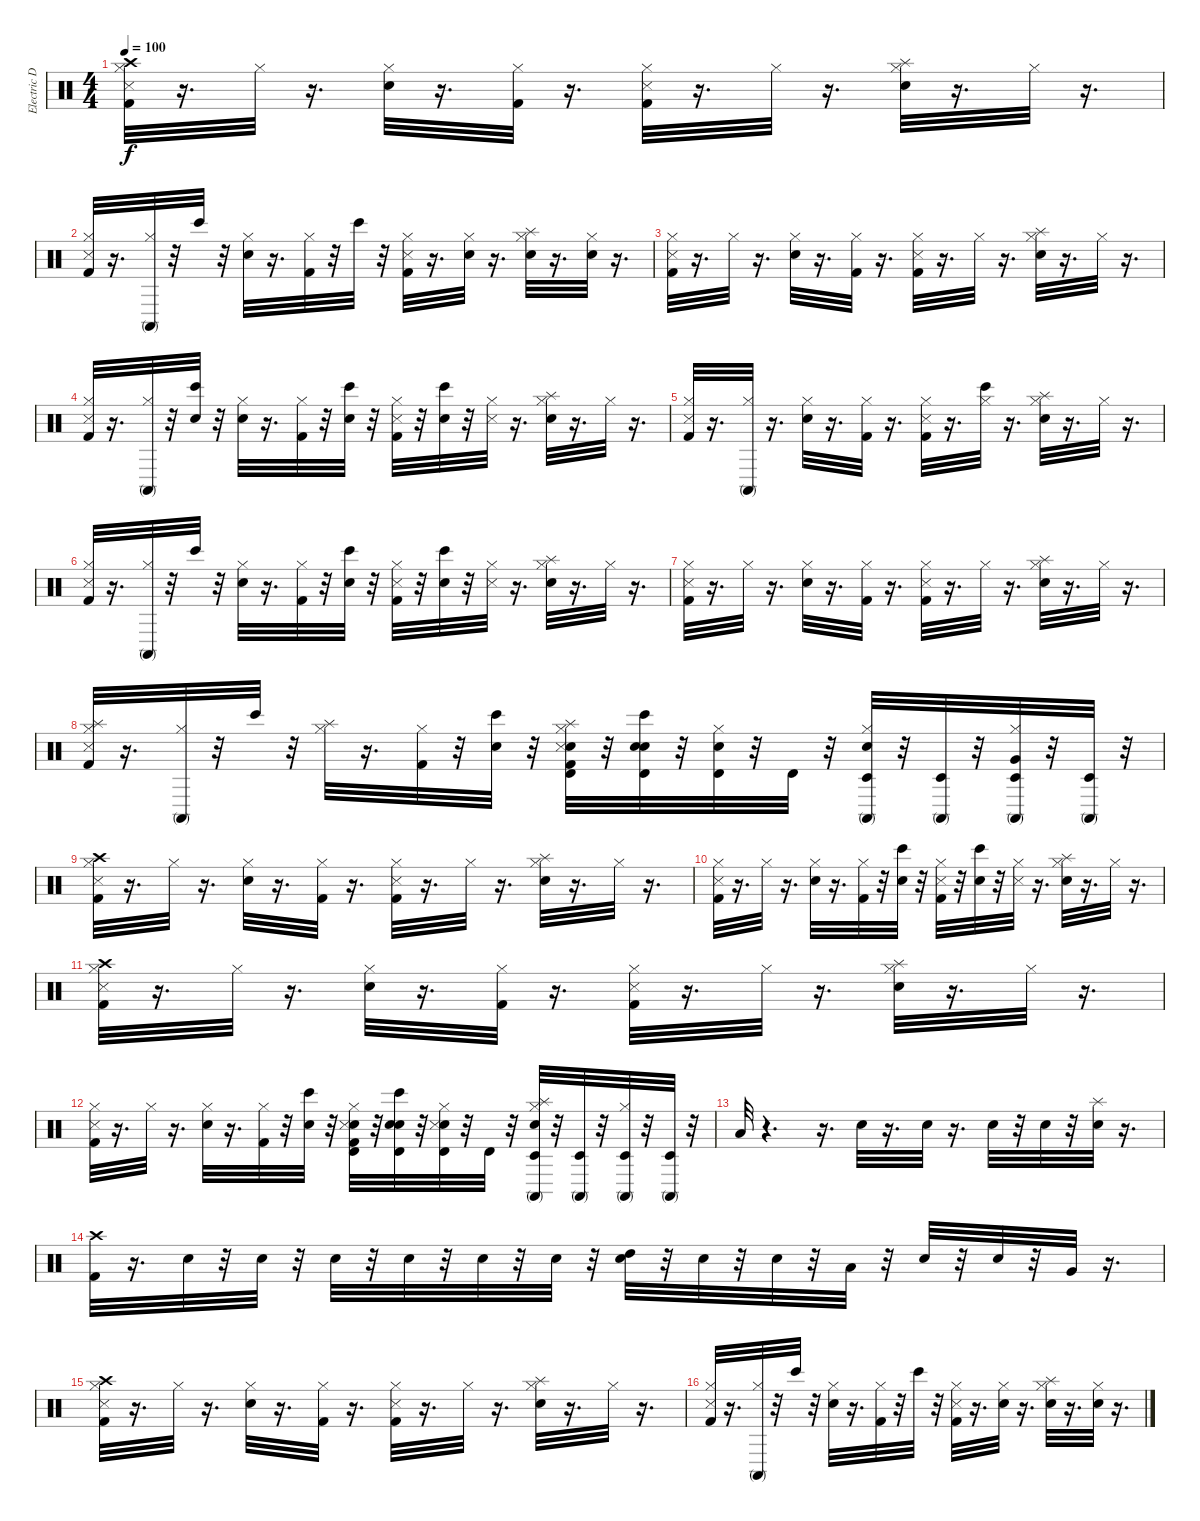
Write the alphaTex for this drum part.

\track ("Electric Drums" "Electric D") {instrument percussion}
\staff {score}
\articulation defaults
\ts (4 4)
\tempo 100
\clef neutral
\ks c
("Crash high (hit)" "Kick (hit) 2" "Hi-Hat (closed)" "Metronome (hit)").32{dy f} r.16{d} "Hi-Hat (closed)".32 r.16{d} ("Electric Snare (hit)" "Hi-Hat (closed)").32 r.16{d} ("Kick (hit) 2" "Hi-Hat (closed)").32 r.16{d} ("Kick (hit) 2" "Hi-Hat (closed)" "Metronome (hit)").32 r.16{d} "Hi-Hat (closed)".32 r.16{d} ("Electric Snare (hit)" "Hi-Hat (closed)" "Splash (hit)").32 r.16{d} "Hi-Hat (closed)".32 r.16{d} |
("Kick (hit) 2" "Hi-Hat (closed)" "Metronome (hit)").32 r.16{d} ("Hi-Hat (closed)" "Conga high (mute)").32 r.32 "Bongo High (hit)".32 r.32 ("Electric Snare (hit)" "Hi-Hat (closed)").32 r.16{d} ("Kick (hit) 2" "Hi-Hat (closed)").32 r.32 "Bongo High (hit)".32 r.32 ("Kick (hit) 2" "Hi-Hat (closed)" "Metronome (hit)").32 r.16{d} ("Snare (hit) 2" "Hi-Hat (closed)").32 r.16{d} ("Electric Snare (hit)" "Hi-Hat (closed)" "Splash (hit)").32 r.16{d} ("Snare (hit) 2" "Hi-Hat (closed)").32 r.16{d} |
("Kick (hit) 2" "Hi-Hat (closed)" "Metronome (hit)").32 r.16{d} "Hi-Hat (closed)".32 r.16{d} ("Electric Snare (hit)" "Hi-Hat (closed)").32 r.16{d} ("Kick (hit) 2" "Hi-Hat (closed)").32 r.16{d} ("Kick (hit) 2" "Hi-Hat (closed)" "Metronome (hit)").32 r.16{d} "Hi-Hat (closed)".32 r.16{d} ("Electric Snare (hit)" "Hi-Hat (closed)" "Splash (hit)").32 r.16{d} "Hi-Hat (closed)".32 r.16{d} |
("Kick (hit) 2" "Hi-Hat (closed)" "Metronome (hit)").32 r.16{d} ("Hi-Hat (closed)" "Conga high (mute)").32 r.32 ("Snare (hit)" "Bongo High (hit)").32 r.32 ("Electric Snare (hit)" "Hi-Hat (closed)").32 r.16{d} ("Kick (hit) 2" "Hi-Hat (closed)").32 r.32 ("Snare (hit)" "Bongo High (hit)").32 r.32 ("Kick (hit) 2" "Hi-Hat (closed)" "Metronome (hit)").32 r.32 ("Snare (hit)" "Bongo High (hit)").32 r.32 ("Hi-Hat (closed)" "Metronome (hit)").32 r.16{d} ("Electric Snare (hit)" "Hi-Hat (closed)" "Splash (hit)").32 r.16{d} "Hi-Hat (closed)".32 r.16{d} |
("Kick (hit) 2" "Hi-Hat (closed)" "Metronome (hit)").32 r.16{d} ("Hi-Hat (closed)" "Conga high (mute)").32 r.16{d} ("Electric Snare (hit)" "Hi-Hat (closed)").32 r.16{d} ("Kick (hit) 2" "Hi-Hat (closed)").32 r.16{d} ("Kick (hit) 2" "Hi-Hat (closed)" "Metronome (hit)").32 r.16{d} ("Hi-Hat (closed)" "Bongo High (hit)").32 r.16{d} ("Electric Snare (hit)" "Hi-Hat (closed)" "Splash (hit)").32 r.16{d} "Hi-Hat (closed)".32 r.16{d} |
("Kick (hit) 2" "Hi-Hat (closed)" "Metronome (hit)").32 r.16{d} ("Hi-Hat (closed)" "Conga high (mute)").32 r.32 "Bongo High (hit)".32 r.32 ("Electric Snare (hit)" "Hi-Hat (closed)").32 r.16{d} ("Kick (hit) 2" "Hi-Hat (closed)").32 r.32 ("Snare (hit)" "Bongo High (hit)").32 r.32 ("Kick (hit) 2" "Hi-Hat (closed)" "Metronome (hit)").32 r.32 ("Snare (hit)" "Bongo High (hit)").32 r.32 ("Hi-Hat (closed)" "Metronome (hit)").32 r.16{d} ("Electric Snare (hit)" "Hi-Hat (closed)" "Splash (hit)").32 r.16{d} "Hi-Hat (closed)".32 r.16{d} |
("Kick (hit) 2" "Hi-Hat (closed)" "Metronome (hit)").32 r.16{d} "Hi-Hat (closed)".32 r.16{d} ("Electric Snare (hit)" "Hi-Hat (closed)").32 r.16{d} ("Kick (hit) 2" "Hi-Hat (closed)").32 r.16{d} ("Kick (hit) 2" "Hi-Hat (closed)" "Metronome (hit)").32 r.16{d} "Hi-Hat (closed)".32 r.16{d} ("Electric Snare (hit)" "Hi-Hat (closed)" "Splash (hit)").32 r.16{d} "Hi-Hat (closed)".32 r.16{d} |
("Kick (hit) 2" "Hi-Hat (closed)" "Splash (hit)" "Metronome (hit)").32 r.16{d} ("Hi-Hat (closed)" "Conga high (mute)").32 r.32 "Bongo High (hit)".32 r.32 ("Hi-Hat (closed)" "Splash (hit)").32 r.16{d} ("Kick (hit) 2" "Hi-Hat (closed)").32 r.32 ("Snare (hit)" "Bongo High (hit)").32 r.32 ("Snare (hit) 2" "Kick (hit) 2" "Hi-Hat (closed)" "Splash (hit)" "Metronome (hit)" "Timbale high (hit)").32 r.32 ("Snare (hit) 2" "Snare (hit)" "Bongo High (hit)" "Timbale high (hit)").32 r.32 ("Snare (hit) 2" "Hi-Hat (closed)" "Timbale high (hit)").32 r.32 "Timbale high (hit)".32 r.32 ("Electric Snare (hit)" "Hi-Hat (closed)" "Conga high (mute)" "Timbale low (hit)").32 r.32 ("Conga high (mute)" "Timbale low (hit)").32 r.32 ("Very Low Tom (hit)" "Hi-Hat (closed)" "Conga high (mute)" "Timbale low (hit)").32 r.32 ("Conga high (mute)" "Timbale low (hit)").32 r.32 |
("Crash high (hit)" "Kick (hit) 2" "Hi-Hat (closed)" "Metronome (hit)").32 r.16{d} "Hi-Hat (closed)".32 r.16{d} ("Electric Snare (hit)" "Hi-Hat (closed)").32 r.16{d} ("Kick (hit) 2" "Hi-Hat (closed)").32 r.16{d} ("Kick (hit) 2" "Hi-Hat (closed)" "Metronome (hit)").32 r.16{d} "Hi-Hat (closed)".32 r.16{d} ("Electric Snare (hit)" "Hi-Hat (closed)" "Splash (hit)").32 r.16{d} "Hi-Hat (closed)".32 r.16{d} |
("Kick (hit) 2" "Hi-Hat (closed)" "Metronome (hit)").32 r.16{d} "Hi-Hat (closed)".32 r.16{d} ("Electric Snare (hit)" "Hi-Hat (closed)").32 r.16{d} ("Kick (hit) 2" "Hi-Hat (closed)").32 r.32 ("Snare (hit)" "Bongo High (hit)").32 r.32 ("Kick (hit) 2" "Hi-Hat (closed)" "Metronome (hit)").32 r.32 ("Snare (hit)" "Bongo High (hit)").32 r.32 ("Hi-Hat (closed)" "Metronome (hit)").32 r.16{d} ("Electric Snare (hit)" "Hi-Hat (closed)" "Splash (hit)").32 r.16{d} "Hi-Hat (closed)".32 r.16{d} |
("Crash high (hit)" "Kick (hit) 2" "Hi-Hat (closed)" "Metronome (hit)").32 r.16{d} "Hi-Hat (closed)".32 r.16{d} ("Electric Snare (hit)" "Hi-Hat (closed)").32 r.16{d} ("Kick (hit) 2" "Hi-Hat (closed)").32 r.16{d} ("Kick (hit) 2" "Hi-Hat (closed)" "Metronome (hit)").32 r.16{d} "Hi-Hat (closed)".32 r.16{d} ("Electric Snare (hit)" "Hi-Hat (closed)" "Splash (hit)").32 r.16{d} "Hi-Hat (closed)".32 r.16{d} |
("Kick (hit) 2" "Hi-Hat (closed)" "Metronome (hit)").32 r.16{d} "Hi-Hat (closed)".32 r.16{d} ("Electric Snare (hit)" "Hi-Hat (closed)").32 r.16{d} ("Kick (hit) 2" "Hi-Hat (closed)").32 r.32 ("Snare (hit)" "Bongo High (hit)").32 r.32 ("Kick (hit) 2" "Snare (hit) 2" "Hi-Hat (closed)" "Metronome (hit)" "Timbale high (hit)").32 r.32 ("Snare (hit) 2" "Snare (hit)" "Bongo High (hit)" "Timbale high (hit)").32 r.32 ("Snare (hit) 2" "Hi-Hat (closed)" "Metronome (hit)" "Timbale high (hit)").32 r.32 "Timbale high (hit)".32 r.32 ("Electric Snare (hit)" "Hi-Hat (closed)" "Splash (hit)" "Conga high (mute)" "Timbale low (hit)").32 r.32 ("Conga high (mute)" "Timbale low (hit)").32 r.32 ("Hi-Hat (closed)" "Conga high (mute)" "Timbale low (hit)").32 r.32 ("Conga high (mute)" "Timbale low (hit)").32 r.32 |
"Low Floor Tom (hit)".32 r.4{d} r.16{d} "Snare (hit) 2".32 r.16{d} "Electric Snare (hit)".32 r.16{d} "Snare (hit) 2".32 r.32 "Snare (hit) 2".32 r.32 ("Snare (hit) 2" "Splash (hit)").32 r.16{d} |
("Crash high (hit)" "Kick (hit) 2").32 r.16{d} "Electric Snare (hit)".32 r.32 "Snare (hit)".32 r.32 "Snare (hit)".32 r.32 "Snare (hit) 2".32 r.32 "Snare (hit)".32 r.32 "Snare (hit)".32 r.32 ("High Tom (hit)" "Electric Snare (hit)").32 r.32 "Snare (hit)".32 r.32 "Snare (hit)".32 r.32 "Low Tom (hit)".32 r.32 "Snare (hit)".32 r.32 "Snare (hit)".32 r.32 "Very Low Tom (hit)".32 r.16{d} |
("Crash high (hit)" "Kick (hit) 2" "Hi-Hat (closed)" "Metronome (hit)").32 r.16{d} "Hi-Hat (closed)".32 r.16{d} ("Electric Snare (hit)" "Hi-Hat (closed)").32 r.16{d} ("Kick (hit) 2" "Hi-Hat (closed)").32 r.16{d} ("Kick (hit) 2" "Hi-Hat (closed)" "Metronome (hit)").32 r.16{d} "Hi-Hat (closed)".32 r.16{d} ("Electric Snare (hit)" "Hi-Hat (closed)" "Splash (hit)").32 r.16{d} "Hi-Hat (closed)".32 r.16{d} |
("Kick (hit) 2" "Hi-Hat (closed)" "Metronome (hit)").32 r.16{d} ("Hi-Hat (closed)" "Conga high (mute)").32 r.32 "Bongo High (hit)".32 r.32 ("Electric Snare (hit)" "Hi-Hat (closed)").32 r.16{d} ("Kick (hit) 2" "Hi-Hat (closed)").32 r.32 "Bongo High (hit)".32 r.32 ("Kick (hit) 2" "Hi-Hat (closed)" "Metronome (hit)").32 r.16{d} ("Snare (hit) 2" "Hi-Hat (closed)").32 r.16{d} ("Electric Snare (hit)" "Hi-Hat (closed)" "Splash (hit)").32 r.16{d} ("Snare (hit) 2" "Hi-Hat (closed)").32 r.16{d}
